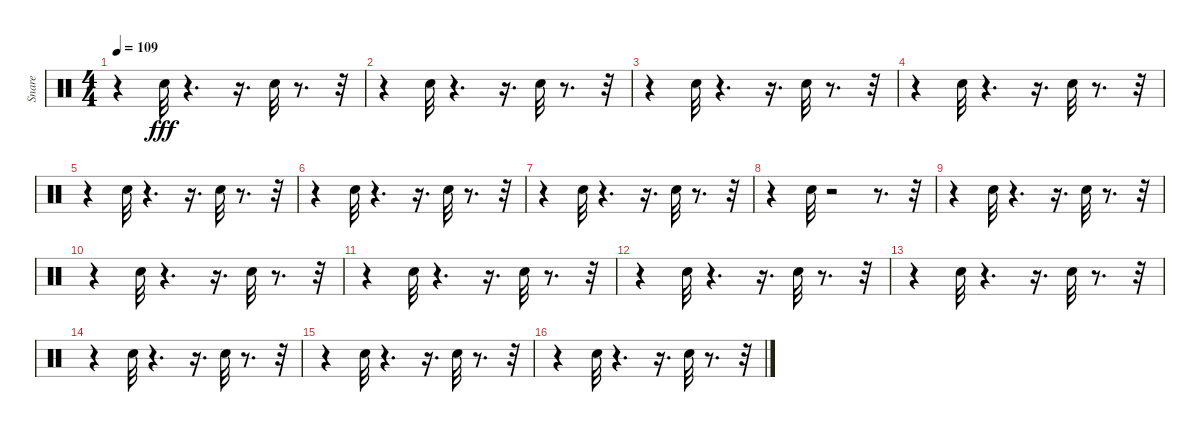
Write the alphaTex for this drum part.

\track ("Snare" "Snare") {instrument percussion}
\staff {score}
\articulation defaults
\ts (4 4)
\tempo 109
\clef neutral
\ks c
r.4{dy fff} "Snare (hit) 2".32 r.4{d} r.16{d} "Snare (hit) 2".32 r.8{d} r.32 |
r.4 "Snare (hit) 2".32 r.4{d} r.16{d} "Snare (hit) 2".32 r.8{d} r.32 |
r.4 "Snare (hit) 2".32 r.4{d} r.16{d} "Snare (hit) 2".32 r.8{d} r.32 |
r.4 "Snare (hit) 2".32 r.4{d} r.16{d} "Snare (hit) 2".32 r.8{d} r.32 |
r.4 "Snare (hit) 2".32 r.4{d} r.16{d} "Snare (hit) 2".32 r.8{d} r.32 |
r.4 "Snare (hit) 2".32 r.4{d} r.16{d} "Snare (hit) 2".32 r.8{d} r.32 |
r.4 "Snare (hit) 2".32 r.4{d} r.16{d} "Snare (hit) 2".32 r.8{d} r.32 |
r.4 "Snare (hit) 2".32 r.2 r.8{d} r.32 |
r.4 "Snare (hit) 2".32 r.4{d} r.16{d} "Snare (hit) 2".32 r.8{d} r.32 |
r.4 "Snare (hit) 2".32 r.4{d} r.16{d} "Snare (hit) 2".32 r.8{d} r.32 |
r.4 "Snare (hit) 2".32 r.4{d} r.16{d} "Snare (hit) 2".32 r.8{d} r.32 |
r.4 "Snare (hit) 2".32 r.4{d} r.16{d} "Snare (hit) 2".32 r.8{d} r.32 |
r.4 "Snare (hit) 2".32 r.4{d} r.16{d} "Snare (hit) 2".32 r.8{d} r.32 |
r.4 "Snare (hit) 2".32 r.4{d} r.16{d} "Snare (hit) 2".32 r.8{d} r.32 |
r.4 "Snare (hit) 2".32 r.4{d} r.16{d} "Snare (hit) 2".32 r.8{d} r.32 |
r.4 "Snare (hit) 2".32 r.4{d} r.16{d} "Snare (hit) 2".32 r.8{d} r.32
